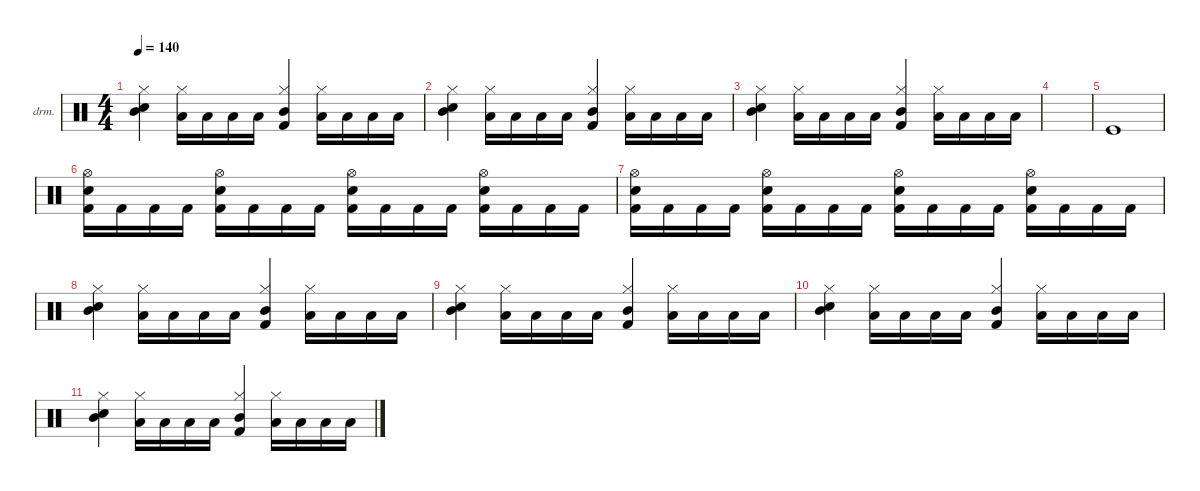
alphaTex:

\defaultSystemsLayout 4
\hideDynamics
\bracketExtendMode nobrackets
\firstSystemTrackNameOrientation horizontal
\otherSystemsTrackNameOrientation horizontal
\track ("Drumkit" "drm.") {instrument percussion}
\staff {score}
\articulation defaults
\ts (4 4)
\tempo 140
\clef neutral
\ks c
("Snare (hit) 2" "Mid Tom (hit)" "Hi-Hat (closed)").4{dy fff} ("Low Tom (hit)" "Hi-Hat (closed)").16 "Low Tom (hit)".16 "Low Tom (hit)".16 "Low Tom (hit)".16 ("Mid Tom (hit)" "Kick (hit) 2" "Hi-Hat (closed)").4 ("Low Tom (hit)" "Hi-Hat (closed)").16 "Low Tom (hit)".16 "Low Tom (hit)".16 "Low Tom (hit)".16 |
("Snare (hit) 2" "Mid Tom (hit)" "Hi-Hat (closed)").4 ("Low Tom (hit)" "Hi-Hat (closed)").16 "Low Tom (hit)".16 "Low Tom (hit)".16 "Low Tom (hit)".16 ("Mid Tom (hit)" "Kick (hit) 2" "Hi-Hat (closed)").4 ("Low Tom (hit)" "Hi-Hat (closed)").16 "Low Tom (hit)".16 "Low Tom (hit)".16 "Low Tom (hit)".16 |
("Snare (hit) 2" "Mid Tom (hit)" "Hi-Hat (closed)").4 ("Low Tom (hit)" "Hi-Hat (closed)").16 "Low Tom (hit)".16 "Low Tom (hit)".16 "Low Tom (hit)".16 ("Mid Tom (hit)" "Kick (hit) 2" "Hi-Hat (closed)").4 ("Low Tom (hit)" "Hi-Hat (closed)").16 "Low Tom (hit)".16 "Low Tom (hit)".16 "Low Tom (hit)".16 |
|
"Kick (hit)".1{dy mf} |
("Hi-Hat (open)" "Snare (hit) 2" "Kick (hit) 2").16 "Kick (hit) 2".16 "Kick (hit) 2".16 "Kick (hit) 2".16 ("Hi-Hat (open)" "Snare (hit) 2" "Kick (hit) 2").16 "Kick (hit) 2".16 "Kick (hit) 2".16 "Kick (hit) 2".16 ("Hi-Hat (open)" "Snare (hit) 2" "Kick (hit) 2").16 "Kick (hit) 2".16 "Kick (hit) 2".16 "Kick (hit) 2".16 ("Hi-Hat (open)" "Snare (hit) 2" "Kick (hit) 2").16 "Kick (hit) 2".16 "Kick (hit) 2".16 "Kick (hit) 2".16 |
("Hi-Hat (open)" "Snare (hit) 2" "Kick (hit) 2").16 "Kick (hit) 2".16 "Kick (hit) 2".16 "Kick (hit) 2".16 ("Hi-Hat (open)" "Snare (hit) 2" "Kick (hit) 2").16 "Kick (hit) 2".16 "Kick (hit) 2".16 "Kick (hit) 2".16 ("Hi-Hat (open)" "Snare (hit) 2" "Kick (hit) 2").16 "Kick (hit) 2".16 "Kick (hit) 2".16 "Kick (hit) 2".16 ("Hi-Hat (open)" "Snare (hit) 2" "Kick (hit) 2").16 "Kick (hit) 2".16 "Kick (hit) 2".16 "Kick (hit) 2".16 |
("Snare (hit) 2" "Mid Tom (hit)" "Hi-Hat (closed)").4{dy fff} ("Low Tom (hit)" "Hi-Hat (closed)").16 "Low Tom (hit)".16 "Low Tom (hit)".16 "Low Tom (hit)".16 ("Mid Tom (hit)" "Kick (hit) 2" "Hi-Hat (closed)").4 ("Low Tom (hit)" "Hi-Hat (closed)").16 "Low Tom (hit)".16 "Low Tom (hit)".16 "Low Tom (hit)".16 |
("Snare (hit) 2" "Mid Tom (hit)" "Hi-Hat (closed)").4 ("Low Tom (hit)" "Hi-Hat (closed)").16 "Low Tom (hit)".16 "Low Tom (hit)".16 "Low Tom (hit)".16 ("Mid Tom (hit)" "Kick (hit) 2" "Hi-Hat (closed)").4 ("Low Tom (hit)" "Hi-Hat (closed)").16 "Low Tom (hit)".16 "Low Tom (hit)".16 "Low Tom (hit)".16 |
("Snare (hit) 2" "Mid Tom (hit)" "Hi-Hat (closed)").4 ("Low Tom (hit)" "Hi-Hat (closed)").16 "Low Tom (hit)".16 "Low Tom (hit)".16 "Low Tom (hit)".16 ("Mid Tom (hit)" "Kick (hit) 2" "Hi-Hat (closed)").4 ("Low Tom (hit)" "Hi-Hat (closed)").16 "Low Tom (hit)".16 "Low Tom (hit)".16 "Low Tom (hit)".16 |
("Snare (hit) 2" "Mid Tom (hit)" "Hi-Hat (closed)").4 ("Low Tom (hit)" "Hi-Hat (closed)").16 "Low Tom (hit)".16 "Low Tom (hit)".16 "Low Tom (hit)".16 ("Mid Tom (hit)" "Kick (hit) 2" "Hi-Hat (closed)").4 ("Low Tom (hit)" "Hi-Hat (closed)").16 "Low Tom (hit)".16 "Low Tom (hit)".16 "Low Tom (hit)".16
